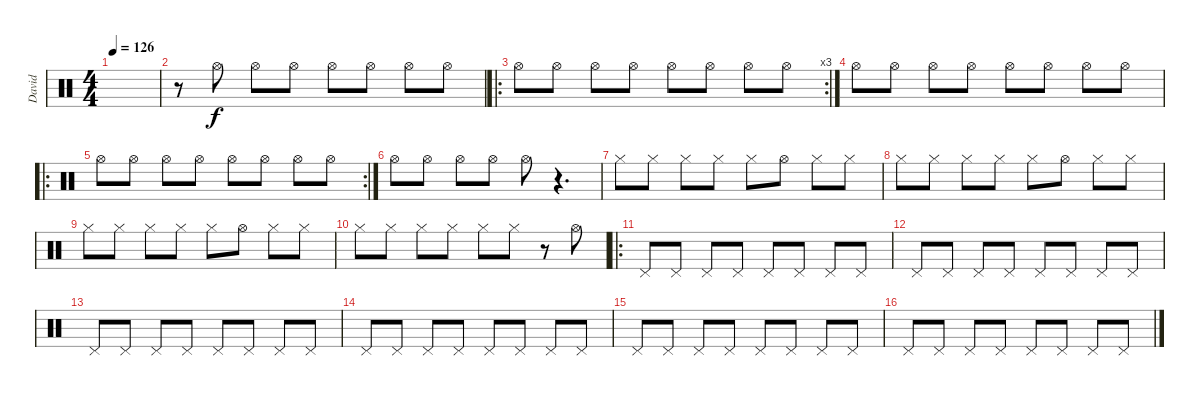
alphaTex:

\track ("David" "David") {instrument percussion}
\staff {score}
\articulation defaults
\ts (4 4)
\tempo 126
\clef neutral
\ks c
|
r.8 "Hi-Hat (open)".8 "Hi-Hat (open)".8 "Hi-Hat (open)".8 "Hi-Hat (open)".8 "Hi-Hat (open)".8 "Hi-Hat (open)".8 "Hi-Hat (open)".8 |
\ro
\rc 3 "Hi-Hat (open)".8 "Hi-Hat (open)".8 "Hi-Hat (open)".8 "Hi-Hat (open)".8 "Hi-Hat (open)".8 "Hi-Hat (open)".8 "Hi-Hat (open)".8 "Hi-Hat (open)".8
|
"Hi-Hat (open)".8 "Hi-Hat (open)".8 "Hi-Hat (open)".8 "Hi-Hat (open)".8 "Hi-Hat (open)".8 "Hi-Hat (open)".8 "Hi-Hat (open)".8 "Hi-Hat (open)".8 |
\ro
\rc 2 "Hi-Hat (open)".8 "Hi-Hat (open)".8 "Hi-Hat (open)".8 "Hi-Hat (open)".8 "Hi-Hat (open)".8 "Hi-Hat (open)".8 "Hi-Hat (open)".8 "Hi-Hat (open)".8
|
"Hi-Hat (open)".8 "Hi-Hat (open)".8 "Hi-Hat (open)".8 "Hi-Hat (open)".8 "Hi-Hat (open)".8 r.4{d} |
"Hi-Hat (closed)".8 "Hi-Hat (closed)".8 "Hi-Hat (closed)".8 "Hi-Hat (closed)".8 "Hi-Hat (closed)".8 "Hi-Hat (open)".8 "Hi-Hat (closed)".8 "Hi-Hat (closed)".8 |
"Hi-Hat (closed)".8 "Hi-Hat (closed)".8 "Hi-Hat (closed)".8 "Hi-Hat (closed)".8 "Hi-Hat (closed)".8 "Hi-Hat (open)".8 "Hi-Hat (closed)".8 "Hi-Hat (closed)".8 |
"Hi-Hat (closed)".8 "Hi-Hat (closed)".8 "Hi-Hat (closed)".8 "Hi-Hat (closed)".8 "Hi-Hat (closed)".8 "Hi-Hat (open)".8 "Hi-Hat (closed)".8 "Hi-Hat (closed)".8 |
"Hi-Hat (closed)".8 "Hi-Hat (closed)".8 "Hi-Hat (closed)".8 "Hi-Hat (closed)".8 "Hi-Hat (closed)".8 "Hi-Hat (closed)".8 r.8 "Hi-Hat (open)".8 |
\ro "Pedal Hi-Hat (hit)".8 "Pedal Hi-Hat (hit)".8 "Pedal Hi-Hat (hit)".8 "Pedal Hi-Hat (hit)".8 "Pedal Hi-Hat (hit)".8 "Pedal Hi-Hat (hit)".8 "Pedal Hi-Hat (hit)".8 "Pedal Hi-Hat (hit)".8
|
"Pedal Hi-Hat (hit)".8 "Pedal Hi-Hat (hit)".8 "Pedal Hi-Hat (hit)".8 "Pedal Hi-Hat (hit)".8 "Pedal Hi-Hat (hit)".8 "Pedal Hi-Hat (hit)".8 "Pedal Hi-Hat (hit)".8 "Pedal Hi-Hat (hit)".8 |
"Pedal Hi-Hat (hit)".8 "Pedal Hi-Hat (hit)".8 "Pedal Hi-Hat (hit)".8 "Pedal Hi-Hat (hit)".8 "Pedal Hi-Hat (hit)".8 "Pedal Hi-Hat (hit)".8 "Pedal Hi-Hat (hit)".8 "Pedal Hi-Hat (hit)".8 |
"Pedal Hi-Hat (hit)".8 "Pedal Hi-Hat (hit)".8 "Pedal Hi-Hat (hit)".8 "Pedal Hi-Hat (hit)".8 "Pedal Hi-Hat (hit)".8 "Pedal Hi-Hat (hit)".8 "Pedal Hi-Hat (hit)".8 "Pedal Hi-Hat (hit)".8 |
"Pedal Hi-Hat (hit)".8 "Pedal Hi-Hat (hit)".8 "Pedal Hi-Hat (hit)".8 "Pedal Hi-Hat (hit)".8 "Pedal Hi-Hat (hit)".8 "Pedal Hi-Hat (hit)".8 "Pedal Hi-Hat (hit)".8 "Pedal Hi-Hat (hit)".8 |
"Pedal Hi-Hat (hit)".8 "Pedal Hi-Hat (hit)".8 "Pedal Hi-Hat (hit)".8 "Pedal Hi-Hat (hit)".8 "Pedal Hi-Hat (hit)".8 "Pedal Hi-Hat (hit)".8 "Pedal Hi-Hat (hit)".8 "Pedal Hi-Hat (hit)".8
